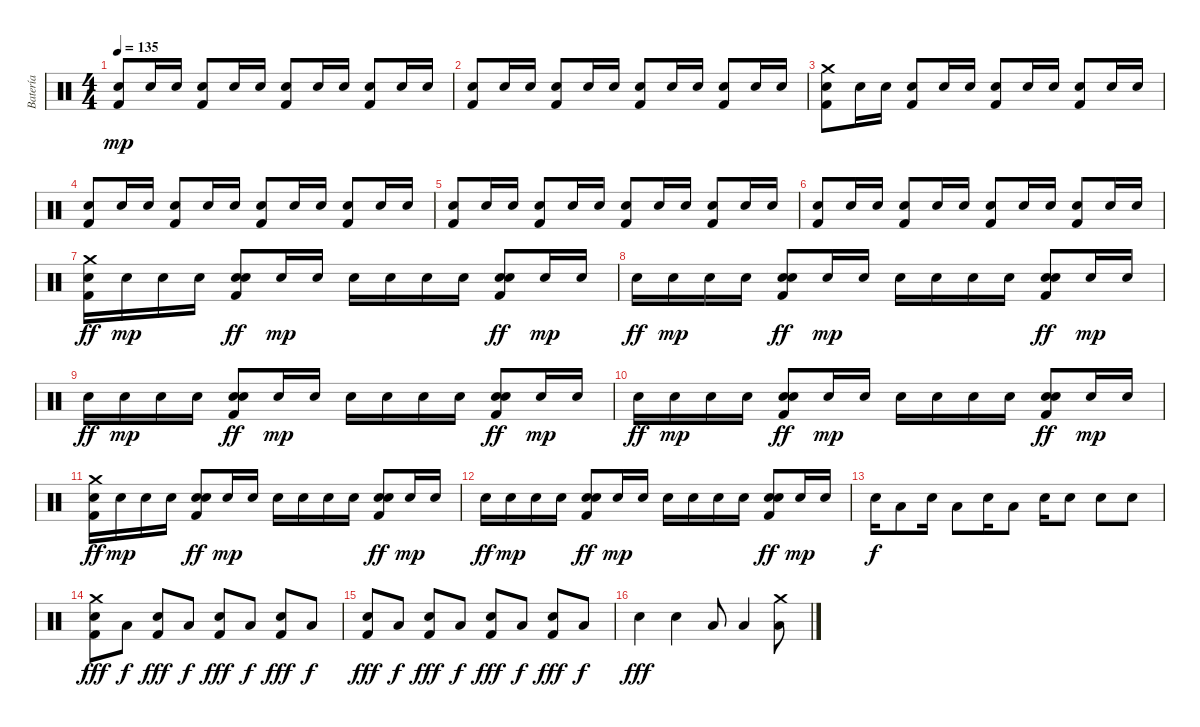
\track ("Batería" "Batería") {instrument percussion}
\staff {score}
\articulation defaults
\ts (4 4)
\tempo 135
\clef neutral
\ks c
("Electric Snare (hit)" "Kick (hit) 2").8{dy mp} "Electric Snare (hit)".16 "Electric Snare (hit)".16 ("Electric Snare (hit)" "Kick (hit) 2").8 "Electric Snare (hit)".16 "Electric Snare (hit)".16 ("Electric Snare (hit)" "Kick (hit) 2").8 "Electric Snare (hit)".16 "Electric Snare (hit)".16 ("Electric Snare (hit)" "Kick (hit) 2").8 "Electric Snare (hit)".16 "Electric Snare (hit)".16 |
("Electric Snare (hit)" "Kick (hit) 2").8 "Electric Snare (hit)".16 "Electric Snare (hit)".16 ("Electric Snare (hit)" "Kick (hit) 2").8 "Electric Snare (hit)".16 "Electric Snare (hit)".16 ("Electric Snare (hit)" "Kick (hit) 2").8 "Electric Snare (hit)".16 "Electric Snare (hit)".16 ("Electric Snare (hit)" "Kick (hit) 2").8 "Electric Snare (hit)".16 "Electric Snare (hit)".16 |
("Crash medium (hit)" "Electric Snare (hit)" "Kick (hit) 2").8 "Electric Snare (hit)".16 "Electric Snare (hit)".16 ("Electric Snare (hit)" "Kick (hit) 2").8 "Electric Snare (hit)".16 "Electric Snare (hit)".16 ("Electric Snare (hit)" "Kick (hit) 2").8 "Electric Snare (hit)".16 "Electric Snare (hit)".16 ("Electric Snare (hit)" "Kick (hit) 2").8 "Electric Snare (hit)".16 "Electric Snare (hit)".16 |
("Electric Snare (hit)" "Kick (hit) 2").8 "Electric Snare (hit)".16 "Electric Snare (hit)".16 ("Electric Snare (hit)" "Kick (hit) 2").8 "Electric Snare (hit)".16 "Electric Snare (hit)".16 ("Electric Snare (hit)" "Kick (hit) 2").8 "Electric Snare (hit)".16 "Electric Snare (hit)".16 ("Electric Snare (hit)" "Kick (hit) 2").8 "Electric Snare (hit)".16 "Electric Snare (hit)".16 |
("Electric Snare (hit)" "Kick (hit) 2").8 "Electric Snare (hit)".16 "Electric Snare (hit)".16 ("Electric Snare (hit)" "Kick (hit) 2").8 "Electric Snare (hit)".16 "Electric Snare (hit)".16 ("Electric Snare (hit)" "Kick (hit) 2").8 "Electric Snare (hit)".16 "Electric Snare (hit)".16 ("Electric Snare (hit)" "Kick (hit) 2").8 "Electric Snare (hit)".16 "Electric Snare (hit)".16 |
("Electric Snare (hit)" "Kick (hit) 2").8 "Electric Snare (hit)".16 "Electric Snare (hit)".16 ("Electric Snare (hit)" "Kick (hit) 2").8 "Electric Snare (hit)".16 "Electric Snare (hit)".16 ("Electric Snare (hit)" "Kick (hit) 2").8 "Electric Snare (hit)".16 "Electric Snare (hit)".16 ("Electric Snare (hit)" "Kick (hit) 2").8 "Electric Snare (hit)".16 "Electric Snare (hit)".16 |
("Crash medium (hit)" "Electric Snare (hit)" "Kick (hit) 2").16{dy ff} "Electric Snare (hit)".16{dy mp} "Electric Snare (hit)".16 "Electric Snare (hit)".16 ("Electric Snare (hit)" "Electric Snare (hit)" "Kick (hit) 2").8{dy ff} "Electric Snare (hit)".16{dy mp} "Electric Snare (hit)".16 "Electric Snare (hit)".16 "Electric Snare (hit)".16 "Electric Snare (hit)".16 "Electric Snare (hit)".16 ("Electric Snare (hit)" "Electric Snare (hit)" "Kick (hit) 2").8{dy ff} "Electric Snare (hit)".16{dy mp} "Electric Snare (hit)".16 |
"Electric Snare (hit)".16{dy ff} "Electric Snare (hit)".16{dy mp} "Electric Snare (hit)".16 "Electric Snare (hit)".16 ("Electric Snare (hit)" "Electric Snare (hit)" "Kick (hit) 2").8{dy ff} "Electric Snare (hit)".16{dy mp} "Electric Snare (hit)".16 "Electric Snare (hit)".16 "Electric Snare (hit)".16 "Electric Snare (hit)".16 "Electric Snare (hit)".16 ("Electric Snare (hit)" "Electric Snare (hit)" "Kick (hit) 2").8{dy ff} "Electric Snare (hit)".16{dy mp} "Electric Snare (hit)".16 |
"Electric Snare (hit)".16{dy ff} "Electric Snare (hit)".16{dy mp} "Electric Snare (hit)".16 "Electric Snare (hit)".16 ("Electric Snare (hit)" "Electric Snare (hit)" "Kick (hit) 2").8{dy ff} "Electric Snare (hit)".16{dy mp} "Electric Snare (hit)".16 "Electric Snare (hit)".16 "Electric Snare (hit)".16 "Electric Snare (hit)".16 "Electric Snare (hit)".16 ("Electric Snare (hit)" "Electric Snare (hit)" "Kick (hit) 2").8{dy ff} "Electric Snare (hit)".16{dy mp} "Electric Snare (hit)".16 |
"Electric Snare (hit)".16{dy ff} "Electric Snare (hit)".16{dy mp} "Electric Snare (hit)".16 "Electric Snare (hit)".16 ("Electric Snare (hit)" "Electric Snare (hit)" "Kick (hit) 2").8{dy ff} "Electric Snare (hit)".16{dy mp} "Electric Snare (hit)".16 "Electric Snare (hit)".16 "Electric Snare (hit)".16 "Electric Snare (hit)".16 "Electric Snare (hit)".16 ("Electric Snare (hit)" "Electric Snare (hit)" "Kick (hit) 2").8{dy ff} "Electric Snare (hit)".16{dy mp} "Electric Snare (hit)".16 |
("Crash medium (hit)" "Electric Snare (hit)" "Kick (hit) 2").16{dy ff} "Electric Snare (hit)".16{dy mp} "Electric Snare (hit)".16 "Electric Snare (hit)".16 ("Electric Snare (hit)" "Electric Snare (hit)" "Kick (hit) 2").8{dy ff} "Electric Snare (hit)".16{dy mp} "Electric Snare (hit)".16 "Electric Snare (hit)".16 "Electric Snare (hit)".16 "Electric Snare (hit)".16 "Electric Snare (hit)".16 ("Electric Snare (hit)" "Electric Snare (hit)" "Kick (hit) 2").8{dy ff} "Electric Snare (hit)".16{dy mp} "Electric Snare (hit)".16 |
"Electric Snare (hit)".16{dy ff} "Electric Snare (hit)".16{dy mp} "Electric Snare (hit)".16 "Electric Snare (hit)".16 ("Electric Snare (hit)" "Electric Snare (hit)" "Kick (hit) 2").8{dy ff} "Electric Snare (hit)".16{dy mp} "Electric Snare (hit)".16 "Electric Snare (hit)".16 "Electric Snare (hit)".16 "Electric Snare (hit)".16 "Electric Snare (hit)".16 ("Electric Snare (hit)" "Electric Snare (hit)" "Kick (hit) 2").8{dy ff} "Electric Snare (hit)".16{dy mp} "Electric Snare (hit)".16 |
"Electric Snare (hit)".16{dy f} "Low Floor Tom (hit)".8 "Electric Snare (hit)".16 "Low Floor Tom (hit)".8 "Electric Snare (hit)".16 "Low Floor Tom (hit)".8 "Electric Snare (hit)".16 "Electric Snare (hit)".8 "Electric Snare (hit)".8 "Electric Snare (hit)".8 |
("Crash medium (hit)" "Electric Snare (hit)" "Kick (hit) 2").8{dy fff} "Low Floor Tom (hit)".8{dy f} ("Electric Snare (hit)" "Kick (hit) 2").8{dy fff} "Low Floor Tom (hit)".8{dy f} ("Electric Snare (hit)" "Kick (hit) 2").8{dy fff} "Low Floor Tom (hit)".8{dy f} ("Electric Snare (hit)" "Kick (hit) 2").8{dy fff} "Low Floor Tom (hit)".8{dy f} |
("Electric Snare (hit)" "Kick (hit) 2").8{dy fff} "Low Floor Tom (hit)".8{dy f} ("Electric Snare (hit)" "Kick (hit) 2").8{dy fff} "Low Floor Tom (hit)".8{dy f} ("Electric Snare (hit)" "Kick (hit) 2").8{dy fff} "Low Floor Tom (hit)".8{dy f} ("Electric Snare (hit)" "Kick (hit) 2").8{dy fff} "Low Floor Tom (hit)".8{dy f} |
"Electric Snare (hit)".4{dy fff} "Electric Snare (hit)".4 "Low Floor Tom (hit)".8 "Low Floor Tom (hit)".4 ("Crash medium (hit)" "Low Floor Tom (hit)").8
